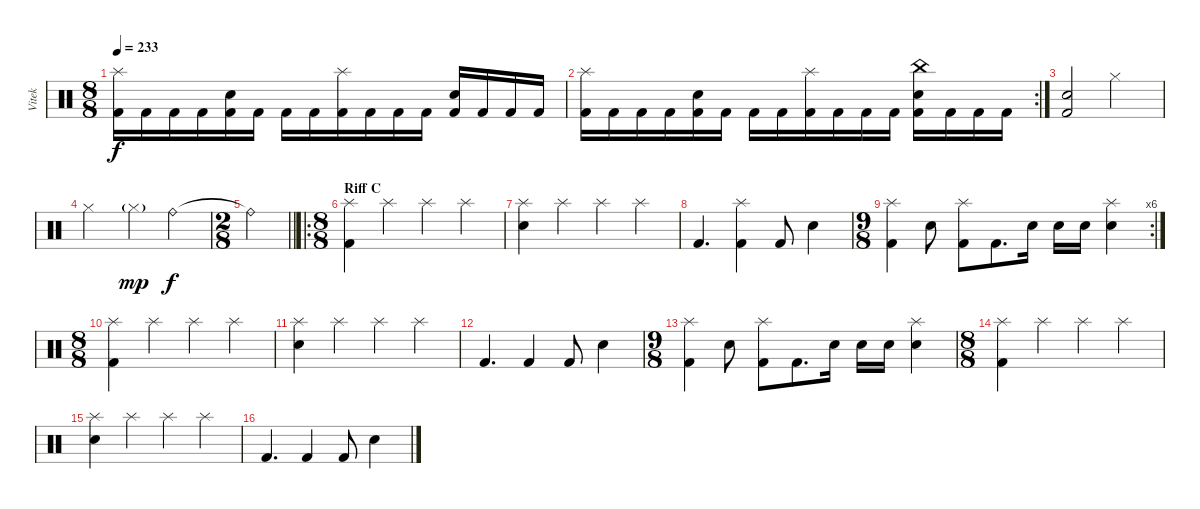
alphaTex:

\track ("Vitek" "Vitek") {instrument percussion}
\staff {score}
\articulation defaults
\ts (8 8)
\tempo 233
\clef neutral
\ks c
("Splash (hit)" "Kick (hit) 2").16{dy f} "Kick (hit) 2".16 "Kick (hit) 2".16 "Kick (hit) 2".16 ("Electric Snare (hit)" "Kick (hit) 2").16 "Kick (hit) 2".16 "Kick (hit) 2".16 "Kick (hit) 2".16 ("Splash (hit)" "Kick (hit) 2").16 "Kick (hit) 2".16 "Kick (hit) 2".16 "Kick (hit) 2".16 ("Electric Snare (hit)" "Kick (hit) 2").16 "Kick (hit) 2".16 "Kick (hit) 2".16 "Kick (hit) 2".16 |
\rc 2
("Splash (hit)" "Kick (hit) 2").16 "Kick (hit) 2".16 "Kick (hit) 2".16 "Kick (hit) 2".16 ("Electric Snare (hit)" "Kick (hit) 2").16 "Kick (hit) 2".16 "Kick (hit) 2".16 "Kick (hit) 2".16 ("Splash (hit)" "Kick (hit) 2").16 "Kick (hit) 2".16 "Kick (hit) 2".16 "Kick (hit) 2".16 ("China (hit)" "Electric Snare (hit)" "Kick (hit) 2").16 "Kick (hit) 2".16 "Kick (hit) 2".16 "Kick (hit) 2".16 |
("Electric Snare (hit)" "Kick (hit) 2").2 "Hi-Hat (closed)".2 |
"Hi-Hat (closed)".2 "Hi-Hat (closed)"{g}.4{dy mp} "Ride (bell)".4{dy f} |
\ts (2 8)
\barLineRight lightlight "Ride (bell)"{t}.4
|
\ro
\ts (8 8)
\section ("" "Riff C")
("Splash (hit)" "Kick (hit) 2").4 "Splash (hit)".4 "Splash (hit)".4 "Splash (hit)".4 |
("Splash (hit)" "Electric Snare (hit)").4 "Splash (hit)".4 "Splash (hit)".4 "Splash (hit)".4 |
"Kick (hit) 2".4{d} ("Splash (hit)" "Kick (hit) 2").4 "Kick (hit) 2".8 "Electric Snare (hit)".4 |
\rc 6
\ts (9 8)
("Splash (hit)" "Kick (hit) 2").4 "Electric Snare (hit)".8 ("Splash (hit)" "Kick (hit) 2").8 "Kick (hit) 2".8{d} "Electric Snare (hit)".16 "Electric Snare (hit)".16 "Electric Snare (hit)".16 ("Splash (hit)" "Electric Snare (hit)").4 |
\ts (8 8)
("Splash (hit)" "Kick (hit) 2").4 "Splash (hit)".4 "Splash (hit)".4 "Splash (hit)".4 |
("Splash (hit)" "Electric Snare (hit)").4 "Splash (hit)".4 "Splash (hit)".4 "Splash (hit)".4 |
"Kick (hit) 2".4{d} "Kick (hit) 2".4 "Kick (hit) 2".8 "Electric Snare (hit)".4 |
\ts (9 8)
("Splash (hit)" "Kick (hit) 2").4 "Electric Snare (hit)".8 ("Splash (hit)" "Kick (hit) 2").8 "Kick (hit) 2".8{d} "Electric Snare (hit)".16 "Electric Snare (hit)".16 "Electric Snare (hit)".16 ("Splash (hit)" "Electric Snare (hit)").4 |
\ts (8 8)
("Splash (hit)" "Kick (hit) 2").4 "Splash (hit)".4 "Splash (hit)".4 "Splash (hit)".4 |
("Splash (hit)" "Electric Snare (hit)").4 "Splash (hit)".4 "Splash (hit)".4 "Splash (hit)".4 |
"Kick (hit) 2".4{d} "Kick (hit) 2".4 "Kick (hit) 2".8 "Electric Snare (hit)".4
